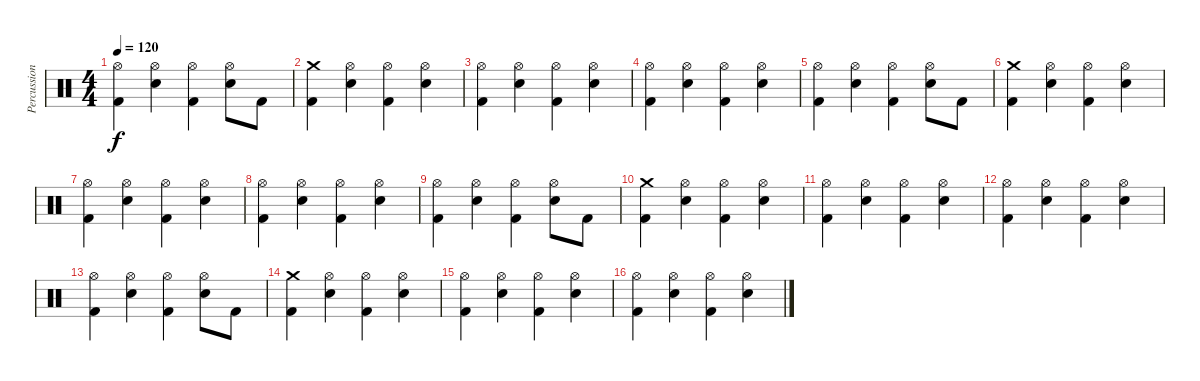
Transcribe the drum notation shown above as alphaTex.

\track ("Percussion" "Percussion") {instrument percussion}
\staff {score}
\articulation defaults
\ts (4 4)
\tempo 120
\clef neutral
\ks c
("Hi-Hat (open)" "Kick (hit) 2").4{dy f} ("Hi-Hat (open)" "Electric Snare (hit)").4 ("Hi-Hat (open)" "Kick (hit) 2").4 ("Hi-Hat (open)" "Electric Snare (hit)").8 "Kick (hit) 2".8 |
("Crash medium (hit)" "Kick (hit) 2").4 ("Hi-Hat (open)" "Electric Snare (hit)").4 ("Hi-Hat (open)" "Kick (hit) 2").4 ("Hi-Hat (open)" "Electric Snare (hit)").4 |
("Hi-Hat (open)" "Kick (hit) 2").4 ("Hi-Hat (open)" "Electric Snare (hit)").4 ("Hi-Hat (open)" "Kick (hit) 2").4 ("Hi-Hat (open)" "Electric Snare (hit)").4 |
("Hi-Hat (open)" "Kick (hit) 2").4 ("Hi-Hat (open)" "Electric Snare (hit)").4 ("Hi-Hat (open)" "Kick (hit) 2").4 ("Hi-Hat (open)" "Electric Snare (hit)").4 |
("Hi-Hat (open)" "Kick (hit) 2").4 ("Hi-Hat (open)" "Electric Snare (hit)").4 ("Hi-Hat (open)" "Kick (hit) 2").4 ("Hi-Hat (open)" "Electric Snare (hit)").8 "Kick (hit) 2".8 |
("Crash medium (hit)" "Kick (hit) 2").4 ("Hi-Hat (open)" "Electric Snare (hit)").4 ("Hi-Hat (open)" "Kick (hit) 2").4 ("Hi-Hat (open)" "Electric Snare (hit)").4 |
("Hi-Hat (open)" "Kick (hit) 2").4 ("Hi-Hat (open)" "Electric Snare (hit)").4 ("Hi-Hat (open)" "Kick (hit) 2").4 ("Hi-Hat (open)" "Electric Snare (hit)").4 |
("Hi-Hat (open)" "Kick (hit) 2").4 ("Hi-Hat (open)" "Electric Snare (hit)").4 ("Hi-Hat (open)" "Kick (hit) 2").4 ("Hi-Hat (open)" "Electric Snare (hit)").4 |
("Hi-Hat (open)" "Kick (hit) 2").4 ("Hi-Hat (open)" "Electric Snare (hit)").4 ("Hi-Hat (open)" "Kick (hit) 2").4 ("Hi-Hat (open)" "Electric Snare (hit)").8 "Kick (hit) 2".8 |
("Crash medium (hit)" "Kick (hit) 2").4 ("Hi-Hat (open)" "Electric Snare (hit)").4 ("Hi-Hat (open)" "Kick (hit) 2").4 ("Hi-Hat (open)" "Electric Snare (hit)").4 |
("Hi-Hat (open)" "Kick (hit) 2").4 ("Hi-Hat (open)" "Electric Snare (hit)").4 ("Hi-Hat (open)" "Kick (hit) 2").4 ("Hi-Hat (open)" "Electric Snare (hit)").4 |
("Hi-Hat (open)" "Kick (hit) 2").4 ("Hi-Hat (open)" "Electric Snare (hit)").4 ("Hi-Hat (open)" "Kick (hit) 2").4 ("Hi-Hat (open)" "Electric Snare (hit)").4 |
("Hi-Hat (open)" "Kick (hit) 2").4 ("Hi-Hat (open)" "Electric Snare (hit)").4 ("Hi-Hat (open)" "Kick (hit) 2").4 ("Hi-Hat (open)" "Electric Snare (hit)").8 "Kick (hit) 2".8 |
("Crash medium (hit)" "Kick (hit) 2").4 ("Hi-Hat (open)" "Electric Snare (hit)").4 ("Hi-Hat (open)" "Kick (hit) 2").4 ("Hi-Hat (open)" "Electric Snare (hit)").4 |
("Hi-Hat (open)" "Kick (hit) 2").4 ("Hi-Hat (open)" "Electric Snare (hit)").4 ("Hi-Hat (open)" "Kick (hit) 2").4 ("Hi-Hat (open)" "Electric Snare (hit)").4 |
("Hi-Hat (open)" "Kick (hit) 2").4 ("Hi-Hat (open)" "Electric Snare (hit)").4 ("Hi-Hat (open)" "Kick (hit) 2").4 ("Hi-Hat (open)" "Electric Snare (hit)").4
